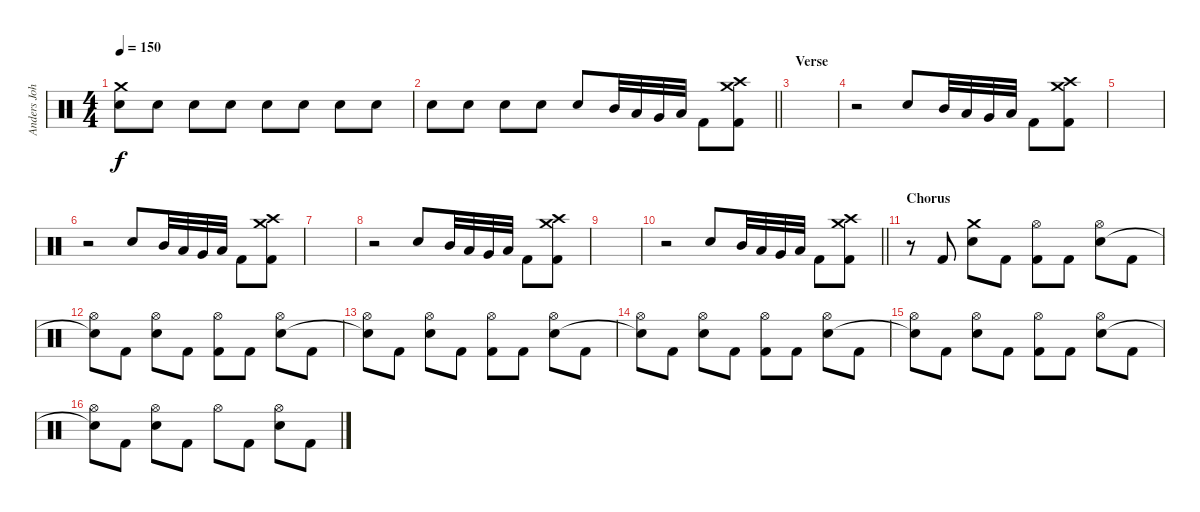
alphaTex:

\track ("Anders Johansson" "Anders Joh") {instrument percussion}
\staff {score}
\articulation defaults
\ts (4 4)
\tempo 150
\clef neutral
\ks c
("Crash medium (hit)" "Electric Snare (hit)").8{dy f} "Electric Snare (hit)".8 "Electric Snare (hit)".8 "Electric Snare (hit)".8 "Electric Snare (hit)".8 "Electric Snare (hit)".8 "Electric Snare (hit)".8 "Electric Snare (hit)".8 |
\barLineRight lightlight "Electric Snare (hit)".8 "Electric Snare (hit)".8 "Electric Snare (hit)".8 "Electric Snare (hit)".8 "Electric Snare (hit)".8 "Mid Tom (hit)".32 "Low Tom (hit)".32 "Very Low Tom (hit)".32 "Low Floor Tom (hit)".32 "Kick (hit) 2".8
("Crash high (hit)" "Crash medium (hit)" "Kick (hit) 2").8 |
\section ("" "Verse")
|
r.2 "Electric Snare (hit)".8 "Mid Tom (hit)".32 "Low Tom (hit)".32 "Very Low Tom (hit)".32 "Low Floor Tom (hit)".32 "Kick (hit) 2".8 ("Crash high (hit)" "Crash medium (hit)" "Kick (hit) 2").8 |
|
r.2 "Electric Snare (hit)".8 "Mid Tom (hit)".32 "Low Tom (hit)".32 "Very Low Tom (hit)".32 "Low Floor Tom (hit)".32 "Kick (hit) 2".8 ("Crash high (hit)" "Crash medium (hit)" "Kick (hit) 2").8 |
|
r.2 "Electric Snare (hit)".8 "Mid Tom (hit)".32 "Low Tom (hit)".32 "Very Low Tom (hit)".32 "Low Floor Tom (hit)".32 "Kick (hit) 2".8 ("Crash high (hit)" "Crash medium (hit)" "Kick (hit) 2").8 |
|
\barLineRight lightlight
r.2 "Electric Snare (hit)".8 "Mid Tom (hit)".32 "Low Tom (hit)".32 "Very Low Tom (hit)".32 "Low Floor Tom (hit)".32 "Kick (hit) 2".8 ("Crash high (hit)" "Crash medium (hit)" "Kick (hit) 2").8 |
\section ("" "Chorus")
r.8 "Kick (hit) 2".8 ("Crash medium (hit)" "Electric Snare (hit)").8 "Kick (hit) 2".8 ("Hi-Hat (open)" "Kick (hit) 2").8 "Kick (hit) 2".8 ("Hi-Hat (open)" "Electric Snare (hit)").8 "Kick (hit) 2".8 |
("Hi-Hat (open)" "Snare (hit)"{t}).8 "Kick (hit) 2".8 ("Hi-Hat (open)" "Electric Snare (hit)").8 "Kick (hit) 2".8 ("Hi-Hat (open)" "Kick (hit) 2").8 "Kick (hit) 2".8 ("Hi-Hat (open)" "Electric Snare (hit)").8 "Kick (hit) 2".8 |
("Hi-Hat (open)" "Snare (hit)"{t}).8 "Kick (hit) 2".8 ("Hi-Hat (open)" "Electric Snare (hit)").8 "Kick (hit) 2".8 ("Hi-Hat (open)" "Kick (hit) 2").8 "Kick (hit) 2".8 ("Hi-Hat (open)" "Electric Snare (hit)").8 "Kick (hit) 2".8 |
("Hi-Hat (open)" "Snare (hit)"{t}).8 "Kick (hit) 2".8 ("Hi-Hat (open)" "Electric Snare (hit)").8 "Kick (hit) 2".8 ("Hi-Hat (open)" "Kick (hit) 2").8 "Kick (hit) 2".8 ("Hi-Hat (open)" "Electric Snare (hit)").8 "Kick (hit) 2".8 |
("Hi-Hat (open)" "Snare (hit)"{t}).8 "Kick (hit) 2".8 ("Hi-Hat (open)" "Electric Snare (hit)").8 "Kick (hit) 2".8 ("Hi-Hat (open)" "Kick (hit) 2").8 "Kick (hit) 2".8 ("Hi-Hat (open)" "Electric Snare (hit)").8 "Kick (hit) 2".8 |
("Hi-Hat (open)" "Snare (hit)"{t}).8 "Kick (hit) 2".8 ("Hi-Hat (open)" "Snare (hit) 2").8 "Kick (hit) 2".8 "Hi-Hat (open)".8 "Kick (hit) 2".8 ("Hi-Hat (open)" "Snare (hit) 2").8 "Kick (hit) 2".8
